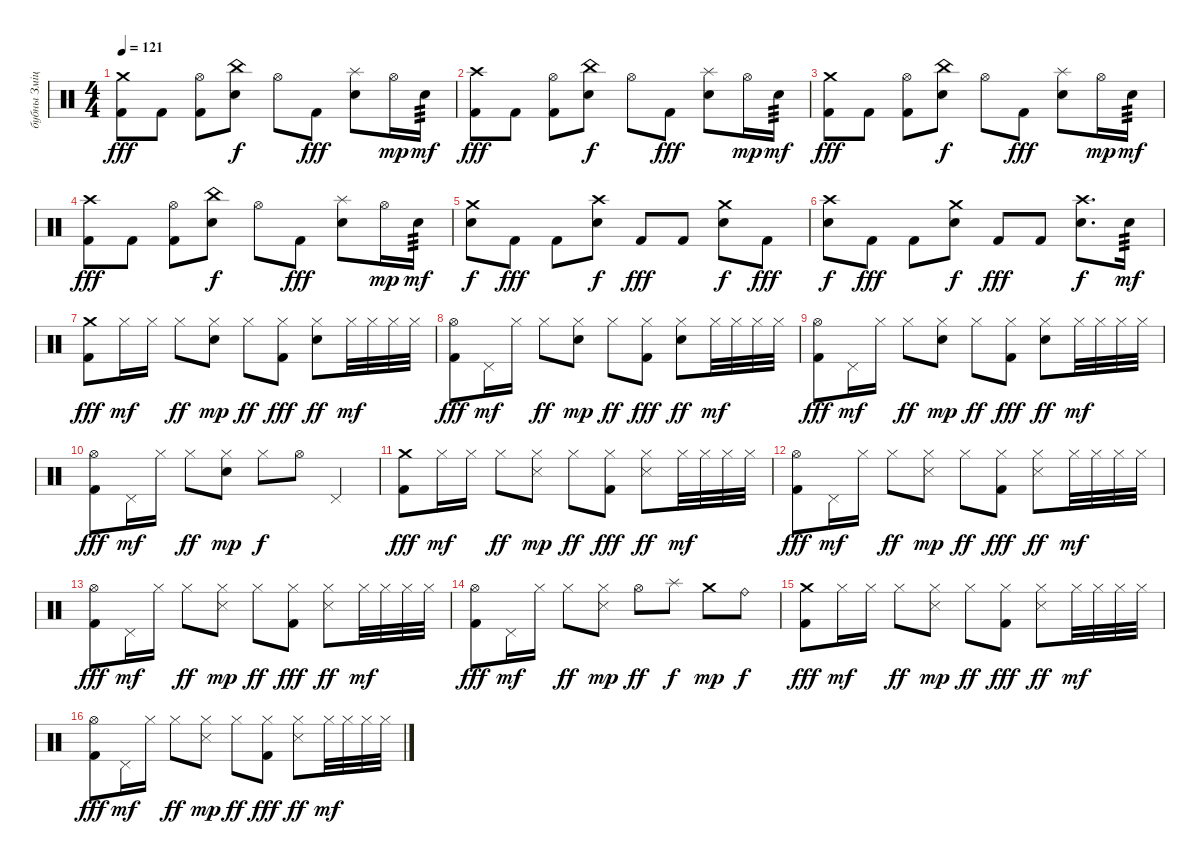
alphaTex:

\track ("бубны Змiцер " "бубны Змiц") {instrument percussion}
\staff {score}
\articulation defaults
\ts (4 4)
\tempo 121
\clef neutral
\ks c
("Crash medium (hit)" "Kick (hit) 2").8{dy fff} "Kick (hit) 2".8 ("Hi-Hat (open)" "Kick (hit) 2").8 ("China (hit)" "Electric Snare (hit)").8{dy f} "Hi-Hat (open)".8 "Kick (hit) 2".8{dy fff} ("Splash (hit)" "Electric Snare (hit)").8 "Hi-Hat (open)".16{dy mp} "Electric Snare (hit)".16{tp 3 dy mf} |
("Crash high (hit)" "Kick (hit) 2").8{dy fff} "Kick (hit) 2".8 ("Hi-Hat (open)" "Kick (hit) 2").8 ("China (hit)" "Electric Snare (hit)").8{dy f} "Hi-Hat (open)".8 "Kick (hit) 2".8{dy fff} ("Splash (hit)" "Electric Snare (hit)").8 "Hi-Hat (open)".16{dy mp} "Electric Snare (hit)".16{tp 3 dy mf} |
("Crash medium (hit)" "Kick (hit) 2").8{dy fff} "Kick (hit) 2".8 ("Hi-Hat (open)" "Kick (hit) 2").8 ("China (hit)" "Electric Snare (hit)").8{dy f} "Hi-Hat (open)".8 "Kick (hit) 2".8{dy fff} ("Splash (hit)" "Electric Snare (hit)").8 "Hi-Hat (open)".16{dy mp} "Electric Snare (hit)".16{tp 3 dy mf} |
("Crash high (hit)" "Kick (hit) 2").8{dy fff} "Kick (hit) 2".8 ("Hi-Hat (open)" "Kick (hit) 2").8 ("China (hit)" "Electric Snare (hit)").8{dy f} "Hi-Hat (open)".8 "Kick (hit) 2".8{dy fff} ("Splash (hit)" "Electric Snare (hit)").8 "Hi-Hat (open)".16{dy mp} "Electric Snare (hit)".16{tp 3 dy mf} |
("Crash medium (hit)" "Electric Snare (hit)").8{dy f} "Kick (hit) 2".8{dy fff} "Kick (hit) 2".8 ("Crash high (hit)" "Electric Snare (hit)").8{dy f} "Kick (hit) 2".8{dy fff} "Kick (hit) 2".8 ("Crash medium (hit)" "Electric Snare (hit)").8{dy f} "Kick (hit) 2".8{dy fff} |
("Crash high (hit)" "Electric Snare (hit)").8{dy f} "Kick (hit) 2".8{dy fff} "Kick (hit) 2".8 ("Crash medium (hit)" "Electric Snare (hit)").8{dy f} "Kick (hit) 2".8{dy fff} "Kick (hit) 2".8 ("Crash high (hit)" "Electric Snare (hit)").8{d dy f} "Electric Snare (hit)".16{tp 3 dy mf} |
("Crash medium (hit)" "Kick (hit) 2").8{dy fff} "Hi-Hat (closed)".16{dy mf} "Hi-Hat (closed)".16 "Hi-Hat (closed)".8{dy ff} ("Hi-Hat (closed)" "Electric Snare (hit)").8{dy mp} "Hi-Hat (closed)".8{dy ff} ("Hi-Hat (closed)" "Kick (hit) 2").8{dy fff} ("Hi-Hat (closed)" "Electric Snare (hit)").8{dy ff} "Hi-Hat (closed)".32{dy mf} "Hi-Hat (closed)".32 "Hi-Hat (closed)".32 "Hi-Hat (closed)".32 |
("Hi-Hat (open)" "Kick (hit) 2").8{dy fff} "Pedal Hi-Hat (hit)".16{dy mf} "Hi-Hat (closed)".16 "Hi-Hat (closed)".8{dy ff} ("Hi-Hat (closed)" "Electric Snare (hit)").8{dy mp} "Hi-Hat (closed)".8{dy ff} ("Hi-Hat (closed)" "Kick (hit) 2").8{dy fff} ("Hi-Hat (closed)" "Electric Snare (hit)").8{dy ff} "Hi-Hat (closed)".32{dy mf} "Hi-Hat (closed)".32 "Hi-Hat (closed)".32 "Hi-Hat (closed)".32 |
("Hi-Hat (open)" "Kick (hit) 2").8{dy fff} "Pedal Hi-Hat (hit)".16{dy mf} "Hi-Hat (closed)".16 "Hi-Hat (closed)".8{dy ff} ("Hi-Hat (closed)" "Electric Snare (hit)").8{dy mp} "Hi-Hat (closed)".8{dy ff} ("Hi-Hat (closed)" "Kick (hit) 2").8{dy fff} ("Hi-Hat (closed)" "Electric Snare (hit)").8{dy ff} "Hi-Hat (closed)".32{dy mf} "Hi-Hat (closed)".32 "Hi-Hat (closed)".32 "Hi-Hat (closed)".32 |
("Hi-Hat (open)" "Kick (hit) 2").8{dy fff} "Pedal Hi-Hat (hit)".16{dy mf} "Hi-Hat (closed)".16 "Hi-Hat (closed)".8{dy ff} ("Hi-Hat (closed)" "Electric Snare (hit)").8{dy mp} "Hi-Hat (closed)".8{dy f} "Hi-Hat (open)".8 "Pedal Hi-Hat (hit)".4 |
("Crash medium (hit)" "Kick (hit) 2").8{dy fff} "Hi-Hat (closed)".16{dy mf} "Hi-Hat (closed)".16 "Hi-Hat (closed)".8{dy ff} ("Hi-Hat (closed)" "Snare (side stick) 3").8{dy mp} "Hi-Hat (closed)".8{dy ff} ("Hi-Hat (closed)" "Kick (hit) 2").8{dy fff} ("Hi-Hat (closed)" "Snare (side stick) 3").8{dy ff} "Hi-Hat (closed)".32{dy mf} "Hi-Hat (closed)".32 "Hi-Hat (closed)".32 "Hi-Hat (closed)".32 |
("Hi-Hat (open)" "Kick (hit) 2").8{dy fff} "Pedal Hi-Hat (hit)".16{dy mf} "Hi-Hat (closed)".16 "Hi-Hat (closed)".8{dy ff} ("Hi-Hat (closed)" "Snare (side stick) 3").8{dy mp} "Hi-Hat (closed)".8{dy ff} ("Hi-Hat (closed)" "Kick (hit) 2").8{dy fff} ("Hi-Hat (closed)" "Snare (side stick) 3").8{dy ff} "Hi-Hat (closed)".32{dy mf} "Hi-Hat (closed)".32 "Hi-Hat (closed)".32 "Hi-Hat (closed)".32 |
("Hi-Hat (open)" "Kick (hit) 2").8{dy fff} "Pedal Hi-Hat (hit)".16{dy mf} "Hi-Hat (closed)".16 "Hi-Hat (closed)".8{dy ff} ("Hi-Hat (closed)" "Snare (side stick) 3").8{dy mp} "Hi-Hat (closed)".8{dy ff} ("Hi-Hat (closed)" "Kick (hit) 2").8{dy fff} ("Hi-Hat (closed)" "Snare (side stick) 3").8{dy ff} "Hi-Hat (closed)".32{dy mf} "Hi-Hat (closed)".32 "Hi-Hat (closed)".32 "Hi-Hat (closed)".32 |
("Hi-Hat (open)" "Kick (hit) 2").8{dy fff} "Pedal Hi-Hat (hit)".16{dy mf} "Hi-Hat (closed)".16 "Hi-Hat (closed)".8{dy ff} ("Hi-Hat (closed)" "Snare (side stick) 3").8{dy mp} "Hi-Hat (open)".8{dy ff} "Splash (hit)".8{dy f} "Crash medium (hit)".8{dy mp} "Ride (bell)".8{dy f} |
("Crash medium (hit)" "Kick (hit) 2").8{dy fff} "Hi-Hat (closed)".16{dy mf} "Hi-Hat (closed)".16 "Hi-Hat (closed)".8{dy ff} ("Hi-Hat (closed)" "Snare (side stick) 3").8{dy mp} "Hi-Hat (closed)".8{dy ff} ("Hi-Hat (closed)" "Kick (hit) 2").8{dy fff} ("Hi-Hat (closed)" "Snare (side stick) 3").8{dy ff} "Hi-Hat (closed)".32{dy mf} "Hi-Hat (closed)".32 "Hi-Hat (closed)".32 "Hi-Hat (closed)".32 |
("Hi-Hat (open)" "Kick (hit) 2").8{dy fff} "Pedal Hi-Hat (hit)".16{dy mf} "Hi-Hat (closed)".16 "Hi-Hat (closed)".8{dy ff} ("Hi-Hat (closed)" "Snare (side stick) 3").8{dy mp} "Hi-Hat (closed)".8{dy ff} ("Hi-Hat (closed)" "Kick (hit) 2").8{dy fff} ("Hi-Hat (closed)" "Snare (side stick) 3").8{dy ff} "Hi-Hat (closed)".32{dy mf} "Hi-Hat (closed)".32 "Hi-Hat (closed)".32 "Hi-Hat (closed)".32
